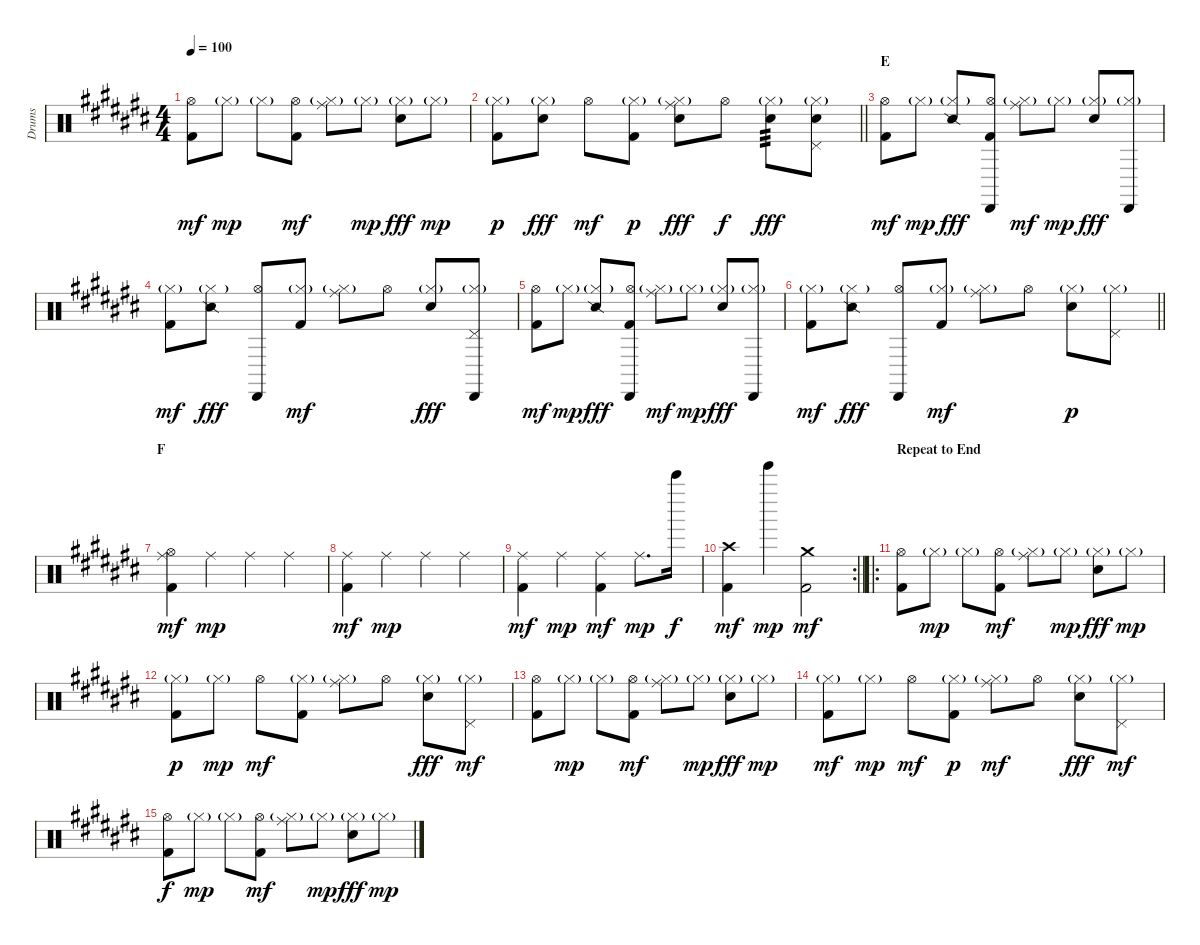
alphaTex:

\track ("Drums" "Drums") {instrument percussion}
\staff {score}
\articulation defaults
\ts (4 4)
\tempo 100
\clef neutral
\ks c#
("Hi-Hat (open)" "Kick (hit) 2").8{dy mf} "Hi-Hat (closed)"{g}.8{dy mp} "Hi-Hat (closed)"{g}.8 ("Hi-Hat (open)" "Kick (hit) 2").8{dy mf} ("Hi-Hat (closed)"{g} "Ride (middle)").8 "Hi-Hat (closed)"{g}.8{dy mp} ("Hi-Hat (closed)"{g} "Snare (hit) 2").8{dy fff} "Hi-Hat (closed)"{g}.8{dy mp} |
\barLineRight lightlight
("Hi-Hat (closed)"{g} "Kick (hit) 2").8{dy p} ("Hi-Hat (closed)"{g} "Snare (hit) 2").8{dy fff} "Hi-Hat (open)".8{dy mf} ("Hi-Hat (closed)"{g} "Kick (hit) 2").8{dy p} ("Hi-Hat (closed)"{g} "Ride (middle)" "Snare (hit) 2").8{dy fff} "Hi-Hat (open)".8{dy f} ("Hi-Hat (closed)"{g} "Snare (hit) 2").8{tp 3 dy fff} ("Hi-Hat (closed)"{g} "Pedal Hi-Hat (hit)" "Snare (hit) 2").8 |
\section ("" "E")
("Hi-Hat (open)" "Kick (hit) 2").8{dy mf} "Hi-Hat (closed)"{g}.8{dy mp} ("Hi-Hat (closed)"{g} "Snare (side stick) 2").8{dy fff} ("Hi-Hat (open)" "Kick (hit) 2" "Cabasa (hit)").8 ("Hi-Hat (closed)"{g} "Ride (middle)").8{dy mf} "Hi-Hat (closed)"{g}.8{dy mp} ("Hi-Hat (closed)"{g} "Snare (hit) 2").8{dy fff} ("Hi-Hat (closed)"{g} "Cabasa (hit)").8 |
("Hi-Hat (closed)"{g} "Kick (hit) 2").8{dy mf} ("Hi-Hat (closed)"{g} "Snare (side stick) 2").8{dy fff} ("Hi-Hat (open)" "Cabasa (hit)").8 ("Hi-Hat (closed)"{g} "Kick (hit) 2").8{dy mf} ("Hi-Hat (closed)"{g} "Ride (middle)").8 "Hi-Hat (open)".8 ("Hi-Hat (closed)"{g} "Snare (hit) 2").8{dy fff} ("Hi-Hat (closed)"{g} "Pedal Hi-Hat (hit)" "Cabasa (hit)").8 |
("Hi-Hat (open)" "Kick (hit) 2").8{dy mf} "Hi-Hat (closed)"{g}.8{dy mp} ("Hi-Hat (closed)"{g} "Snare (side stick) 2").8{dy fff} ("Hi-Hat (open)" "Kick (hit) 2" "Cabasa (hit)").8 ("Hi-Hat (closed)"{g} "Ride (middle)").8{dy mf} "Hi-Hat (closed)"{g}.8{dy mp} ("Hi-Hat (closed)"{g} "Snare (hit) 2").8{dy fff} ("Hi-Hat (closed)"{g} "Cabasa (hit)").8 |
\barLineRight lightlight
("Hi-Hat (closed)"{g} "Kick (hit) 2").8{dy mf} ("Hi-Hat (closed)"{g} "Snare (side stick) 2").8{dy fff} ("Hi-Hat (open)" "Cabasa (hit)").8 ("Hi-Hat (closed)"{g} "Kick (hit) 2").8{dy mf} ("Hi-Hat (closed)"{g} "Ride (middle)").8 "Hi-Hat (open)".8 ("Hi-Hat (closed)"{g} "Electric Snare (hit)").8{dy p} ("Hi-Hat (closed)"{g} "Pedal Hi-Hat (hit)").8 |
\section ("" "F")
("Ride (middle)" "Hi-Hat (open)" "Kick (hit) 2").4{dy mf} "Ride (middle)".4{dy mp} "Ride (middle)".4 "Ride (middle)".4 |
("Ride (middle)" "Kick (hit) 2").4{dy mf} "Ride (middle)".4{dy mp} "Ride (middle)".4 "Ride (middle)".4 |
("Ride (middle)" "Kick (hit) 2").4{dy mf} "Ride (middle)".4{dy mp} ("Ride (middle)" "Kick (hit) 2").4{dy mf} "Ride (middle)".8{d dy mp} "Bell Tree (hit)".16{dy f} |
\rc 2
\barLineRight lightlight
("Crash high (hit)" "Kick (hit) 2").4{dy mf} "Tinkle Bell (hit)".4{dy mp} ("Crash medium (hit)" "Kick (hit) 2").2{dy mf} |
\ro
\section ("" "Repeat to End")
("Hi-Hat (open)" "Kick (hit) 2").8 "Hi-Hat (closed)"{g}.8{dy mp} "Hi-Hat (closed)"{g}.8 ("Hi-Hat (open)" "Kick (hit) 2").8{dy mf} ("Hi-Hat (closed)"{g} "Ride (middle)").8 "Hi-Hat (closed)"{g}.8{dy mp} ("Hi-Hat (closed)"{g} "Snare (hit) 2").8{dy fff} "Hi-Hat (closed)"{g}.8{dy mp} |
("Hi-Hat (closed)"{g} "Kick (hit) 2").8{dy p} "Hi-Hat (closed)"{g}.8{dy mp} "Hi-Hat (open)".8{dy mf} ("Hi-Hat (closed)"{g} "Kick (hit) 2").8 ("Hi-Hat (closed)"{g} "Ride (middle)").8 "Hi-Hat (open)".8 ("Hi-Hat (closed)"{g} "Snare (hit) 2").8{dy fff} ("Hi-Hat (closed)"{g} "Pedal Hi-Hat (hit)").8{dy mf} |
("Hi-Hat (open)" "Kick (hit) 2").8 "Hi-Hat (closed)"{g}.8{dy mp} "Hi-Hat (closed)"{g}.8 ("Hi-Hat (open)" "Kick (hit) 2").8{dy mf} ("Hi-Hat (closed)"{g} "Ride (middle)").8 "Hi-Hat (closed)"{g}.8{dy mp} ("Hi-Hat (closed)"{g} "Snare (hit) 2").8{dy fff} "Hi-Hat (closed)"{g}.8{dy mp} |
("Hi-Hat (closed)"{g} "Kick (hit) 2").8{dy mf} "Hi-Hat (closed)"{g}.8{dy mp} "Hi-Hat (open)".8{dy mf} ("Hi-Hat (closed)"{g} "Kick (hit) 2").8{dy p} ("Hi-Hat (closed)"{g} "Ride (middle)").8{dy mf} "Hi-Hat (open)".8 ("Hi-Hat (closed)"{g} "Snare (hit) 2").8{dy fff} ("Hi-Hat (closed)"{g} "Pedal Hi-Hat (hit)").8{dy mf} |
("Hi-Hat (open)" "Kick (hit) 2").8{dy f} "Hi-Hat (closed)"{g}.8{dy mp} "Hi-Hat (closed)"{g}.8 ("Hi-Hat (open)" "Kick (hit) 2").8{dy mf} ("Hi-Hat (closed)"{g} "Ride (middle)").8 "Hi-Hat (closed)"{g}.8{dy mp} ("Hi-Hat (closed)"{g} "Snare (hit) 2").8{dy fff} "Hi-Hat (closed)"{g}.8{dy mp}
